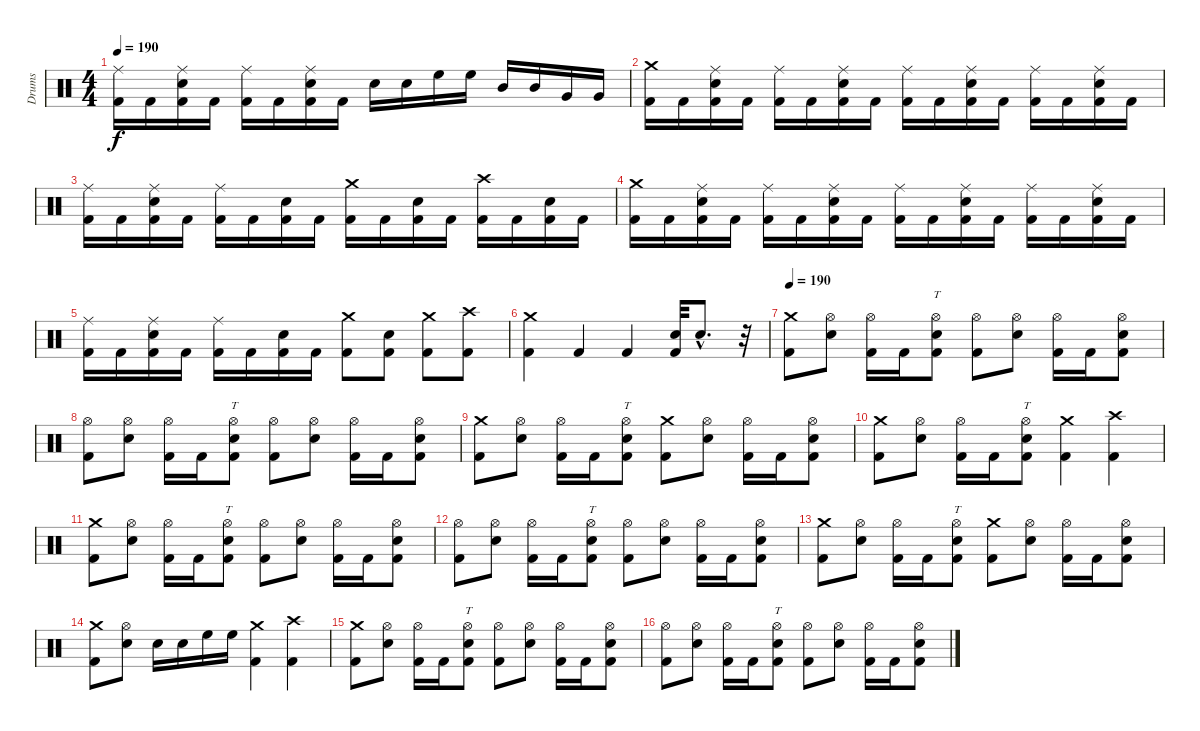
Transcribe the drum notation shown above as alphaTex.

\track ("Drums" "Drums") {instrument percussion}
\staff {score}
\articulation defaults
\ts (4 4)
\tempo 190
\clef neutral
\ks c
("Ride (middle)" "Kick (hit) 2").16{dy f} "Kick (hit) 2".16 ("Ride (middle)" "Electric Snare (hit)" "Kick (hit) 2").16 "Kick (hit) 2".16 ("Ride (middle)" "Kick (hit) 2").16 "Kick (hit) 2".16 ("Ride (middle)" "Electric Snare (hit)" "Kick (hit) 2").16 "Kick (hit) 2".16 "Electric Snare (hit)".16 "Electric Snare (hit)".16 "High Floor Tom (hit)".16 "High Floor Tom (hit)".16 "Mid Tom (hit)".16 "Mid Tom (hit)".16 "Very Low Tom (hit)".16 "Very Low Tom (hit)".16 |
("Crash medium (hit)" "Kick (hit) 2").16 "Kick (hit) 2".16 ("Ride (middle)" "Electric Snare (hit)" "Kick (hit) 2").16 "Kick (hit) 2".16 ("Ride (middle)" "Kick (hit) 2").16 "Kick (hit) 2".16 ("Ride (middle)" "Electric Snare (hit)" "Kick (hit) 2").16 "Kick (hit) 2".16 ("Ride (middle)" "Kick (hit) 2").16 "Kick (hit) 2".16 ("Ride (middle)" "Electric Snare (hit)" "Kick (hit) 2").16 "Kick (hit) 2".16 ("Ride (middle)" "Kick (hit) 2").16 "Kick (hit) 2".16 ("Ride (middle)" "Electric Snare (hit)" "Kick (hit) 2").16 "Kick (hit) 2".16 |
("Ride (middle)" "Kick (hit) 2").16 "Kick (hit) 2".16 ("Ride (middle)" "Electric Snare (hit)" "Kick (hit) 2").16 "Kick (hit) 2".16 ("Ride (middle)" "Kick (hit) 2").16 "Kick (hit) 2".16 ("Electric Snare (hit)" "Kick (hit) 2").16 "Kick (hit) 2".16 ("Crash medium (hit)" "Kick (hit) 2").16 "Kick (hit) 2".16 ("Electric Snare (hit)" "Kick (hit) 2").16 "Kick (hit) 2".16 ("Crash high (hit)" "Kick (hit) 2").16 "Kick (hit) 2".16 ("Electric Snare (hit)" "Kick (hit) 2").16 "Kick (hit) 2".16 |
("Crash medium (hit)" "Kick (hit) 2").16 "Kick (hit) 2".16 ("Ride (middle)" "Electric Snare (hit)" "Kick (hit) 2").16 "Kick (hit) 2".16 ("Ride (middle)" "Kick (hit) 2").16 "Kick (hit) 2".16 ("Ride (middle)" "Electric Snare (hit)" "Kick (hit) 2").16 "Kick (hit) 2".16 ("Ride (middle)" "Kick (hit) 2").16 "Kick (hit) 2".16 ("Ride (middle)" "Electric Snare (hit)" "Kick (hit) 2").16 "Kick (hit) 2".16 ("Ride (middle)" "Kick (hit) 2").16 "Kick (hit) 2".16 ("Ride (middle)" "Electric Snare (hit)" "Kick (hit) 2").16 "Kick (hit) 2".16 |
("Ride (middle)" "Kick (hit) 2").16 "Kick (hit) 2".16 ("Ride (middle)" "Electric Snare (hit)" "Kick (hit) 2").16 "Kick (hit) 2".16 ("Ride (middle)" "Kick (hit) 2").16 "Kick (hit) 2".16 ("Electric Snare (hit)" "Kick (hit) 2").16 "Kick (hit) 2".16 ("Crash medium (hit)" "Kick (hit) 2").8 ("Electric Snare (hit)" "Kick (hit) 2").8 ("Crash medium (hit)" "Kick (hit) 2").8 ("Crash high (hit)" "Kick (hit) 2").8 |
("Crash medium (hit)" "Kick (hit) 2").4 "Kick (hit) 2".4 "Kick (hit) 2".4 ("Electric Snare (hit)" "Kick (hit) 2").32 "Electric Snare (hit)"{hac}.8{d} r.32 |
\tempo 190
("Crash medium (hit)" "Kick (hit) 2").8 ("Hi-Hat (open)" "Electric Snare (hit)").8 ("Hi-Hat (open)" "Kick (hit) 2").16 "Kick (hit) 2".16 ("Hi-Hat (open)" "Electric Snare (hit)" "Kick (hit) 2").8{tt} ("Hi-Hat (open)" "Kick (hit) 2").8 ("Hi-Hat (open)" "Electric Snare (hit)").8 ("Hi-Hat (open)" "Kick (hit) 2").16 "Kick (hit) 2".16 ("Hi-Hat (open)" "Electric Snare (hit)" "Kick (hit) 2").8 |
("Hi-Hat (open)" "Kick (hit) 2").8 ("Hi-Hat (open)" "Electric Snare (hit)").8 ("Hi-Hat (open)" "Kick (hit) 2").16 "Kick (hit) 2".16 ("Hi-Hat (open)" "Electric Snare (hit)" "Kick (hit) 2").8{tt} ("Hi-Hat (open)" "Kick (hit) 2").8 ("Hi-Hat (open)" "Electric Snare (hit)").8 ("Hi-Hat (open)" "Kick (hit) 2").16 "Kick (hit) 2".16 ("Hi-Hat (open)" "Electric Snare (hit)" "Kick (hit) 2").8 |
("Crash medium (hit)" "Kick (hit) 2").8 ("Hi-Hat (open)" "Electric Snare (hit)").8 ("Hi-Hat (open)" "Kick (hit) 2").16 "Kick (hit) 2".16 ("Hi-Hat (open)" "Electric Snare (hit)" "Kick (hit) 2").8{tt} ("Crash medium (hit)" "Kick (hit) 2").8 ("Hi-Hat (open)" "Electric Snare (hit)").8 ("Hi-Hat (open)" "Kick (hit) 2").16 "Kick (hit) 2".16 ("Hi-Hat (open)" "Electric Snare (hit)" "Kick (hit) 2").8 |
("Crash medium (hit)" "Kick (hit) 2").8 ("Hi-Hat (open)" "Electric Snare (hit)").8 ("Hi-Hat (open)" "Kick (hit) 2").16 "Kick (hit) 2".16 ("Hi-Hat (open)" "Electric Snare (hit)" "Kick (hit) 2").8{tt} ("Crash medium (hit)" "Kick (hit) 2").4 ("Crash high (hit)" "Kick (hit) 2").4 |
("Crash medium (hit)" "Kick (hit) 2").8 ("Hi-Hat (open)" "Electric Snare (hit)").8 ("Hi-Hat (open)" "Kick (hit) 2").16 "Kick (hit) 2".16 ("Hi-Hat (open)" "Electric Snare (hit)" "Kick (hit) 2").8{tt} ("Hi-Hat (open)" "Kick (hit) 2").8 ("Hi-Hat (open)" "Electric Snare (hit)").8 ("Hi-Hat (open)" "Kick (hit) 2").16 "Kick (hit) 2".16 ("Hi-Hat (open)" "Electric Snare (hit)" "Kick (hit) 2").8 |
("Hi-Hat (open)" "Kick (hit) 2").8 ("Hi-Hat (open)" "Electric Snare (hit)").8 ("Hi-Hat (open)" "Kick (hit) 2").16 "Kick (hit) 2".16 ("Hi-Hat (open)" "Electric Snare (hit)" "Kick (hit) 2").8{tt} ("Hi-Hat (open)" "Kick (hit) 2").8 ("Hi-Hat (open)" "Electric Snare (hit)").8 ("Hi-Hat (open)" "Kick (hit) 2").16 "Kick (hit) 2".16 ("Hi-Hat (open)" "Electric Snare (hit)" "Kick (hit) 2").8 |
("Crash medium (hit)" "Kick (hit) 2").8 ("Hi-Hat (open)" "Electric Snare (hit)").8 ("Hi-Hat (open)" "Kick (hit) 2").16 "Kick (hit) 2".16 ("Hi-Hat (open)" "Electric Snare (hit)" "Kick (hit) 2").8{tt} ("Crash medium (hit)" "Kick (hit) 2").8 ("Hi-Hat (open)" "Electric Snare (hit)").8 ("Hi-Hat (open)" "Kick (hit) 2").16 "Kick (hit) 2".16 ("Hi-Hat (open)" "Electric Snare (hit)" "Kick (hit) 2").8 |
("Crash medium (hit)" "Kick (hit) 2").8 ("Hi-Hat (open)" "Electric Snare (hit)").8 "Electric Snare (hit)".16 "Electric Snare (hit)".16 "High Floor Tom (hit)".16 "High Floor Tom (hit)".16 ("Crash medium (hit)" "Kick (hit) 2").4 ("Crash high (hit)" "Kick (hit) 2").4 |
("Crash medium (hit)" "Kick (hit) 2").8 ("Hi-Hat (open)" "Electric Snare (hit)").8 ("Hi-Hat (open)" "Kick (hit) 2").16 "Kick (hit) 2".16 ("Hi-Hat (open)" "Electric Snare (hit)" "Kick (hit) 2").8{tt} ("Hi-Hat (open)" "Kick (hit) 2").8 ("Hi-Hat (open)" "Electric Snare (hit)").8 ("Hi-Hat (open)" "Kick (hit) 2").16 "Kick (hit) 2".16 ("Hi-Hat (open)" "Electric Snare (hit)" "Kick (hit) 2").8 |
("Hi-Hat (open)" "Kick (hit) 2").8 ("Hi-Hat (open)" "Electric Snare (hit)").8 ("Hi-Hat (open)" "Kick (hit) 2").16 "Kick (hit) 2".16 ("Hi-Hat (open)" "Electric Snare (hit)" "Kick (hit) 2").8{tt} ("Hi-Hat (open)" "Kick (hit) 2").8 ("Hi-Hat (open)" "Electric Snare (hit)").8 ("Hi-Hat (open)" "Kick (hit) 2").16 "Kick (hit) 2".16 ("Hi-Hat (open)" "Electric Snare (hit)" "Kick (hit) 2").8
